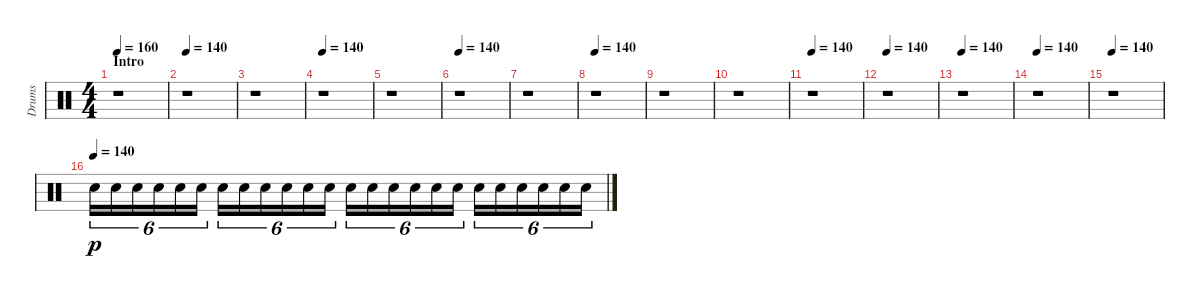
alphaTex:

\track ("Drums" "Drums") {instrument percussion}
\staff {score}
\articulation defaults
\ts (4 4)
\section ("" "Intro")
\tempo 160
\tempo 140
\tempo 160
\clef neutral
\ks c
r.1{dy p} |
\tempo 140
r.1 |
r.1 |
\tempo 140
r.1 |
r.1 |
\tempo 140
r.1 |
r.1 |
\tempo 140
r.1 |
r.1 |
r.1 |
\tempo 140
r.1 |
\tempo 140
r.1 |
\tempo 140
r.1 |
\tempo 140
r.1 |
\tempo 140
r.1 |
\tempo (140)
"Snare (hit) 2".16{tu (6 4) volume 16} "Snare (hit) 2".16{tu (6 4)} "Snare (hit) 2".16{tu (6 4)} "Snare (hit) 2".16{tu (6 4)} "Snare (hit) 2".16{tu (6 4)} "Snare (hit) 2".16{tu (6 4)} "Snare (hit) 2".16{tu (6 4)} "Snare (hit) 2".16{tu (6 4)} "Snare (hit) 2".16{tu (6 4)} "Snare (hit) 2".16{tu (6 4)} "Snare (hit) 2".16{tu (6 4)} "Snare (hit) 2".16{tu (6 4)} "Snare (hit) 2".16{tu (6 4)} "Snare (hit) 2".16{tu (6 4)} "Snare (hit) 2".16{tu (6 4)} "Snare (hit) 2".16{tu (6 4)} "Snare (hit) 2".16{tu (6 4)} "Snare (hit) 2".16{tu (6 4)} "Snare (hit) 2".16{tu (6 4)} "Snare (hit) 2".16{tu (6 4)} "Snare (hit) 2".16{tu (6 4)} "Snare (hit) 2".16{tu (6 4)} "Snare (hit) 2".16{tu (6 4)} "Snare (hit) 2".16{tu (6 4)}
